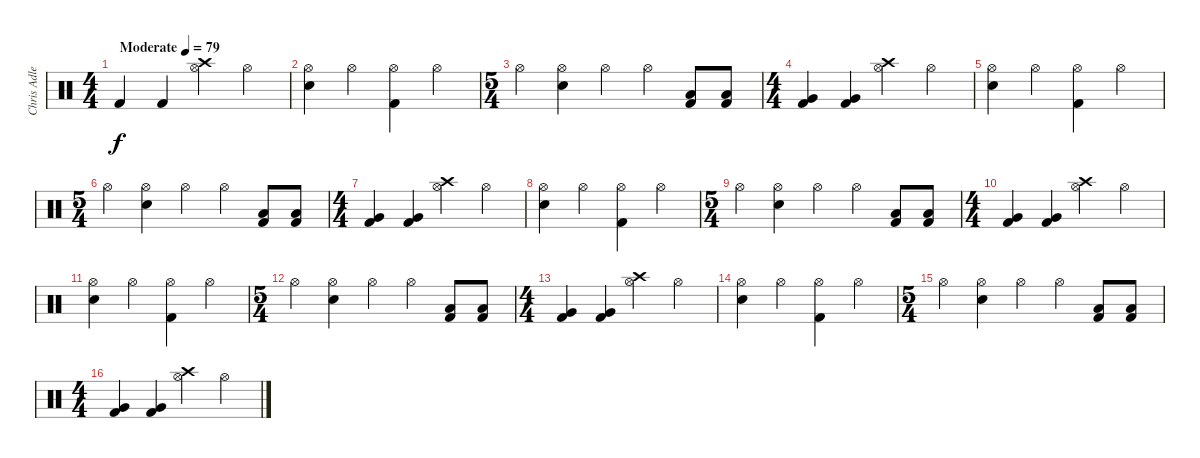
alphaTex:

\track ("Chris Adler" "Chris Adle") {instrument percussion}
\staff {score}
\articulation defaults
\ts (4 4)
\tempo (79 "Moderate")
\clef neutral
\ks c "Kick (hit) 2".4{dy f} "Kick (hit) 2".4
("Hi-Hat (open)" "Crash high (hit)").4 "Hi-Hat (open)".4 |
("Hi-Hat (open)" "Electric Snare (hit)").4 "Hi-Hat (open)".4 ("Hi-Hat (open)" "Kick (hit) 2").4 "Hi-Hat (open)".4 |
\ts (5 4)
"Hi-Hat (open)".4 ("Hi-Hat (open)" "Electric Snare (hit)").4 "Hi-Hat (open)".4 "Hi-Hat (open)".4 ("Low Floor Tom (hit)" "Kick (hit) 2").8 ("Low Floor Tom (hit)" "Kick (hit) 2").8 |
\ts (4 4)
("Very Low Tom (hit)" "Kick (hit) 2").4 ("Very Low Tom (hit)" "Kick (hit) 2").4 ("Hi-Hat (open)" "Crash high (hit)").4 "Hi-Hat (open)".4 |
("Hi-Hat (open)" "Electric Snare (hit)").4 "Hi-Hat (open)".4 ("Hi-Hat (open)" "Kick (hit) 2").4 "Hi-Hat (open)".4 |
\ts (5 4)
"Hi-Hat (open)".4 ("Hi-Hat (open)" "Electric Snare (hit)").4 "Hi-Hat (open)".4 "Hi-Hat (open)".4 ("Low Floor Tom (hit)" "Kick (hit) 2").8 ("Low Floor Tom (hit)" "Kick (hit) 2").8 |
\ts (4 4)
("Very Low Tom (hit)" "Kick (hit) 2").4 ("Very Low Tom (hit)" "Kick (hit) 2").4 ("Hi-Hat (open)" "Crash high (hit)").4 "Hi-Hat (open)".4 |
("Hi-Hat (open)" "Electric Snare (hit)").4 "Hi-Hat (open)".4 ("Hi-Hat (open)" "Kick (hit) 2").4 "Hi-Hat (open)".4 |
\ts (5 4)
"Hi-Hat (open)".4 ("Hi-Hat (open)" "Electric Snare (hit)").4 "Hi-Hat (open)".4 "Hi-Hat (open)".4 ("Low Floor Tom (hit)" "Kick (hit) 2").8 ("Low Floor Tom (hit)" "Kick (hit) 2").8 |
\ts (4 4)
("Very Low Tom (hit)" "Kick (hit) 2").4 ("Very Low Tom (hit)" "Kick (hit) 2").4 ("Hi-Hat (open)" "Crash high (hit)").4 "Hi-Hat (open)".4 |
("Hi-Hat (open)" "Electric Snare (hit)").4 "Hi-Hat (open)".4 ("Hi-Hat (open)" "Kick (hit) 2").4 "Hi-Hat (open)".4 |
\ts (5 4)
"Hi-Hat (open)".4 ("Hi-Hat (open)" "Electric Snare (hit)").4 "Hi-Hat (open)".4 "Hi-Hat (open)".4 ("Low Floor Tom (hit)" "Kick (hit) 2").8 ("Low Floor Tom (hit)" "Kick (hit) 2").8 |
\ts (4 4)
("Very Low Tom (hit)" "Kick (hit) 2").4 ("Very Low Tom (hit)" "Kick (hit) 2").4 ("Hi-Hat (open)" "Crash high (hit)").4 "Hi-Hat (open)".4 |
("Hi-Hat (open)" "Electric Snare (hit)").4 "Hi-Hat (open)".4 ("Hi-Hat (open)" "Kick (hit) 2").4 "Hi-Hat (open)".4 |
\ts (5 4)
"Hi-Hat (open)".4 ("Hi-Hat (open)" "Electric Snare (hit)").4 "Hi-Hat (open)".4 "Hi-Hat (open)".4 ("Low Floor Tom (hit)" "Kick (hit) 2").8 ("Low Floor Tom (hit)" "Kick (hit) 2").8 |
\ts (4 4)
("Very Low Tom (hit)" "Kick (hit) 2").4 ("Very Low Tom (hit)" "Kick (hit) 2").4 ("Hi-Hat (open)" "Crash high (hit)").4 "Hi-Hat (open)".4
